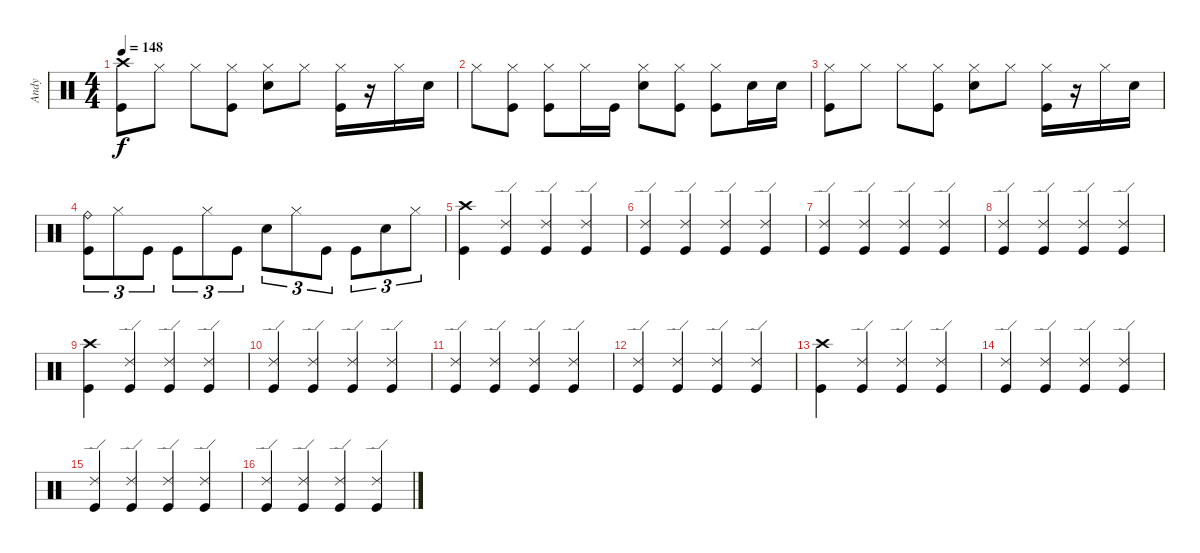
\track ("Andy" "Andy") {instrument percussion}
\staff {score}
\articulation defaults
\ts (4 4)
\tempo 148
\clef neutral
\ks c
("Kick (hit)" "Crash high (hit)").8{dy f} "Hi-Hat (closed)".8 "Hi-Hat (closed)".8 ("Hi-Hat (closed)" "Kick (hit)").8 ("Hi-Hat (closed)" "Snare (hit) 2").8 "Hi-Hat (closed)".8 ("Kick (hit)" "Hi-Hat (closed)").16 r.16 "Hi-Hat (closed)".16 "Snare (hit) 2".16 |
"Hi-Hat (closed)".8 ("Hi-Hat (closed)" "Kick (hit)").8 ("Hi-Hat (closed)" "Kick (hit)").8 "Hi-Hat (closed)".16 "Kick (hit)".16 ("Snare (hit) 2" "Hi-Hat (closed)").8 ("Kick (hit)" "Hi-Hat (closed)").8 ("Kick (hit)" "Hi-Hat (closed)").8 "Snare (hit) 2".16 "Snare (hit) 2".16 |
("Kick (hit)" "Hi-Hat (closed)").8 "Hi-Hat (closed)".8 "Hi-Hat (closed)".8 ("Hi-Hat (closed)" "Kick (hit)").8 ("Hi-Hat (closed)" "Snare (hit) 2").8 "Hi-Hat (closed)".8 ("Kick (hit)" "Hi-Hat (closed)").16 r.16 "Hi-Hat (closed)".16 "Snare (hit) 2".16 |
("Kick (hit)" "Ride (bell)").8{tu (3 2)} "Hi-Hat (closed)".8{tu (3 2)} "Kick (hit)".8{tu (3 2)} "Kick (hit)".8{tu (3 2)} "Hi-Hat (closed)".8{tu (3 2)} "Kick (hit)".8{tu (3 2)} "Snare (hit) 2".8{tu (3 2)} "Hi-Hat (closed)".8{tu (3 2)} "Kick (hit)".8{tu (3 2)} "Kick (hit)".8{tu (3 2)} "Snare (hit) 2".8{tu (3 2)} "Hi-Hat (closed)".8{tu (3 2)} |
("Kick (hit)" "Crash high (hit)").4 ("Ride (edge) 2" "Kick (hit)").4 ("Ride (edge) 2" "Kick (hit)").4 ("Ride (edge) 2" "Kick (hit)").4 |
("Kick (hit)" "Ride (edge) 2").4 ("Ride (edge) 2" "Kick (hit)").4 ("Ride (edge) 2" "Kick (hit)").4 ("Ride (edge) 2" "Kick (hit)").4 |
("Kick (hit)" "Ride (edge) 2").4 ("Ride (edge) 2" "Kick (hit)").4 ("Ride (edge) 2" "Kick (hit)").4 ("Ride (edge) 2" "Kick (hit)").4 |
("Kick (hit)" "Ride (edge) 2").4 ("Ride (edge) 2" "Kick (hit)").4 ("Ride (edge) 2" "Kick (hit)").4 ("Ride (edge) 2" "Kick (hit)").4 |
("Kick (hit)" "Crash high (hit)").4 ("Ride (edge) 2" "Kick (hit)").4 ("Ride (edge) 2" "Kick (hit)").4 ("Ride (edge) 2" "Kick (hit)").4 |
("Kick (hit)" "Ride (edge) 2").4 ("Ride (edge) 2" "Kick (hit)").4 ("Ride (edge) 2" "Kick (hit)").4 ("Ride (edge) 2" "Kick (hit)").4 |
("Kick (hit)" "Ride (edge) 2").4 ("Ride (edge) 2" "Kick (hit)").4 ("Ride (edge) 2" "Kick (hit)").4 ("Ride (edge) 2" "Kick (hit)").4 |
("Kick (hit)" "Ride (edge) 2").4 ("Ride (edge) 2" "Kick (hit)").4 ("Ride (edge) 2" "Kick (hit)").4 ("Ride (edge) 2" "Kick (hit)").4 |
("Kick (hit)" "Crash high (hit)").4 ("Ride (edge) 2" "Kick (hit)").4 ("Ride (edge) 2" "Kick (hit)").4 ("Ride (edge) 2" "Kick (hit)").4 |
("Kick (hit)" "Ride (edge) 2").4 ("Ride (edge) 2" "Kick (hit)").4 ("Ride (edge) 2" "Kick (hit)").4 ("Ride (edge) 2" "Kick (hit)").4 |
("Kick (hit)" "Ride (edge) 2").4 ("Ride (edge) 2" "Kick (hit)").4 ("Ride (edge) 2" "Kick (hit)").4 ("Ride (edge) 2" "Kick (hit)").4 |
("Kick (hit)" "Ride (edge) 2").4 ("Ride (edge) 2" "Kick (hit)").4 ("Ride (edge) 2" "Kick (hit)").4 ("Ride (edge) 2" "Kick (hit)").4
